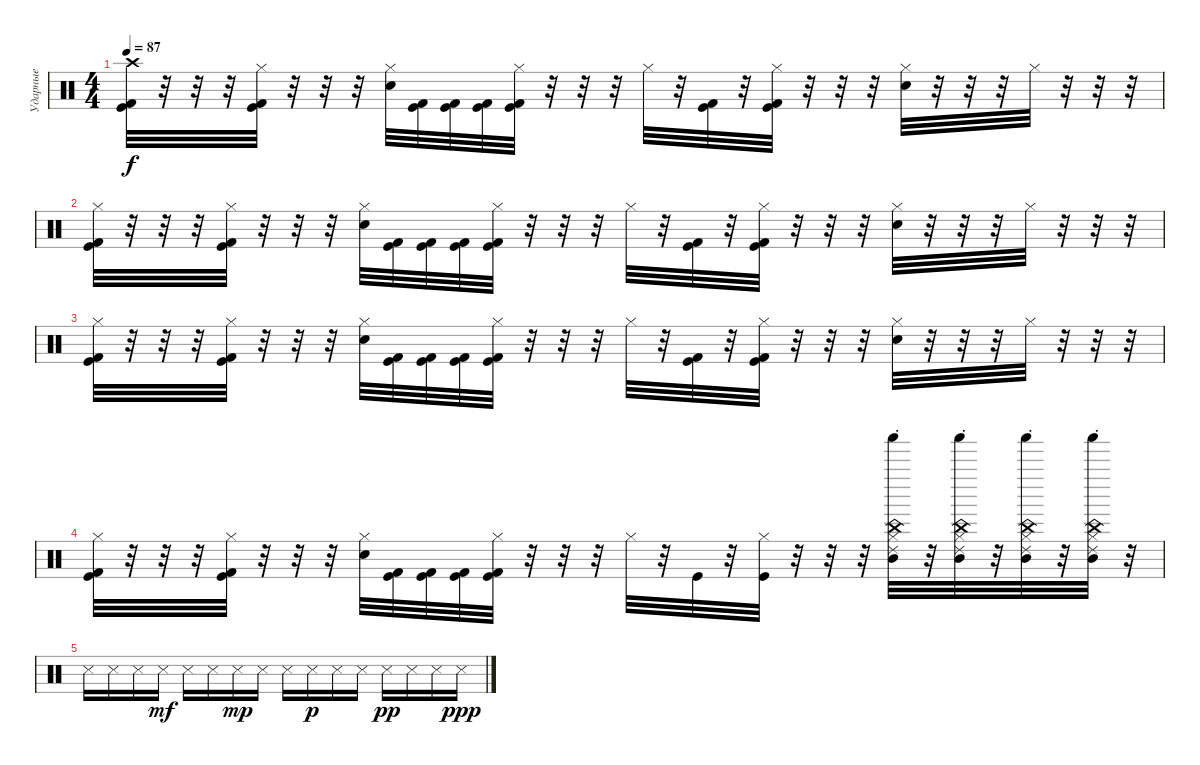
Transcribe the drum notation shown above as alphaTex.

\track ("Ударные" "Ударные") {instrument percussion}
\staff {score}
\articulation defaults
\ts (4 4)
\tempo 87
\clef neutral
\ks c
("Crash high (hit)" "Kick (hit) 2" "Kick (hit)").32{dy f} r.32 r.32 r.32 ("Hi-Hat (closed)" "Kick (hit) 2" "Kick (hit)").32 r.32 r.32 r.32 ("Hi-Hat (closed)" "Electric Snare (hit)").32 ("Kick (hit) 2" "Kick (hit)").32 ("Kick (hit) 2" "Kick (hit)").32 ("Kick (hit) 2" "Kick (hit)").32 ("Hi-Hat (closed)" "Kick (hit) 2" "Kick (hit)").32 r.32 r.32 r.32 "Hi-Hat (closed)".32 r.32 ("Kick (hit) 2" "Kick (hit)").32 r.32 ("Hi-Hat (closed)" "Kick (hit) 2" "Kick (hit)").32 r.32 r.32 r.32 ("Hi-Hat (closed)" "Electric Snare (hit)").32 r.32 r.32 r.32 "Hi-Hat (closed)".32 r.32 r.32 r.32 |
("Hi-Hat (closed)" "Kick (hit) 2" "Kick (hit)").32 r.32 r.32 r.32 ("Hi-Hat (closed)" "Kick (hit) 2" "Kick (hit)").32 r.32 r.32 r.32 ("Hi-Hat (closed)" "Electric Snare (hit)").32 ("Kick (hit) 2" "Kick (hit)").32 ("Kick (hit) 2" "Kick (hit)").32 ("Kick (hit) 2" "Kick (hit)").32 ("Hi-Hat (closed)" "Kick (hit) 2" "Kick (hit)").32 r.32 r.32 r.32 "Hi-Hat (closed)".32 r.32 ("Kick (hit) 2" "Kick (hit)").32 r.32 ("Hi-Hat (closed)" "Kick (hit) 2" "Kick (hit)").32 r.32 r.32 r.32 ("Hi-Hat (closed)" "Electric Snare (hit)").32 r.32 r.32 r.32 "Hi-Hat (closed)".32 r.32 r.32 r.32 |
("Hi-Hat (closed)" "Kick (hit) 2" "Kick (hit)").32 r.32 r.32 r.32 ("Hi-Hat (closed)" "Kick (hit) 2" "Kick (hit)").32 r.32 r.32 r.32 ("Hi-Hat (closed)" "Electric Snare (hit)").32 ("Kick (hit) 2" "Kick (hit)").32 ("Kick (hit) 2" "Kick (hit)").32 ("Kick (hit) 2" "Kick (hit)").32 ("Hi-Hat (closed)" "Kick (hit) 2" "Kick (hit)").32 r.32 r.32 r.32 "Hi-Hat (closed)".32 r.32 ("Kick (hit) 2" "Kick (hit)").32 r.32 ("Hi-Hat (closed)" "Kick (hit) 2" "Kick (hit)").32 r.32 r.32 r.32 ("Hi-Hat (closed)" "Electric Snare (hit)").32 r.32 r.32 r.32 "Hi-Hat (closed)".32 r.32 r.32 r.32 |
("Hi-Hat (closed)" "Kick (hit) 2" "Kick (hit)").32 r.32 r.32 r.32 ("Hi-Hat (closed)" "Kick (hit) 2" "Kick (hit)").32 r.32 r.32 r.32 ("Hi-Hat (closed)" "Electric Snare (hit)").32 ("Kick (hit) 2" "Kick (hit)").32 ("Kick (hit) 2" "Kick (hit)").32 ("Kick (hit) 2" "Kick (hit)").32 ("Hi-Hat (closed)" "Kick (hit) 2" "Kick (hit)").32 r.32 r.32 r.32 "Hi-Hat (closed)".32 r.32 "Kick (hit)".32 r.32 ("Hi-Hat (closed)" "Kick (hit)").32 r.32 r.32 r.32 ("Shaker (hit)" "Mid Tom (hit)" "Hi-Hat (closed)" "Ride (choke) 2" "China (hit)").32 r.32 ("Shaker (hit)" "Mid Tom (hit)" "Hi-Hat (closed)" "Ride (choke) 2" "China (hit)").32 r.32 ("Shaker (hit)" "Mid Tom (hit)" "Hi-Hat (closed)" "Ride (choke) 2" "China (hit)").32 r.32 ("Shaker (hit)" "Mid Tom (hit)" "Hi-Hat (closed)" "Ride (choke) 2" "China (hit)").32 r.32 |
"Snare (side stick) 3".16 "Snare (side stick) 3".16 "Snare (side stick) 3".16 "Snare (side stick) 3".16{dy mf} "Snare (side stick) 3".16 "Snare (side stick) 3".16 "Snare (side stick) 3".16{dy mp} "Snare (side stick) 3".16 "Snare (side stick) 3".16 "Snare (side stick) 3".16{dy p} "Snare (side stick) 3".16 "Snare (side stick) 3".16 "Snare (side stick) 3".16{dy pp} "Snare (side stick) 3".16 "Snare (side stick) 3".16 "Snare (side stick) 3".16{dy ppp}
